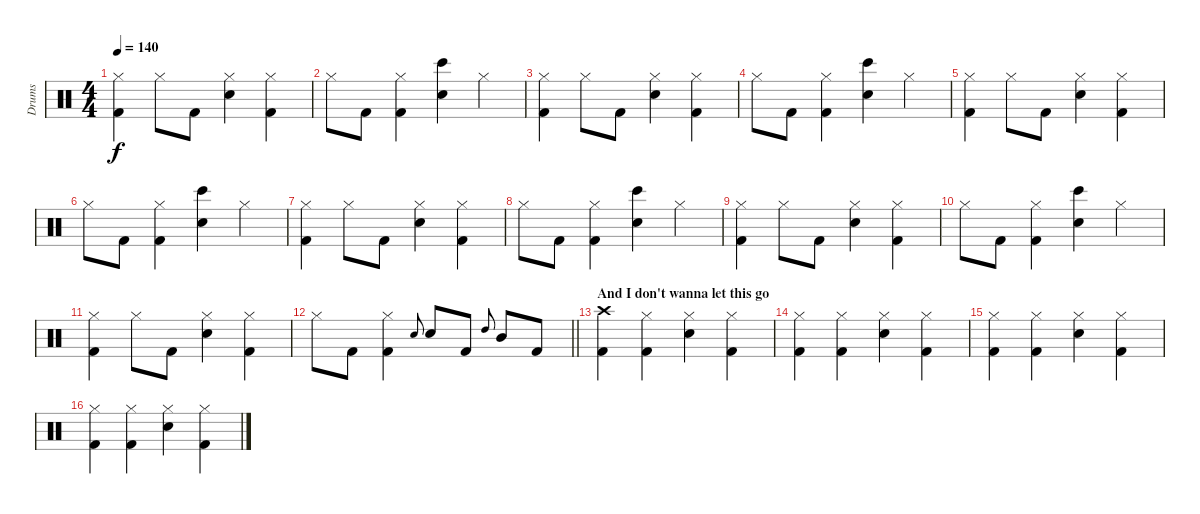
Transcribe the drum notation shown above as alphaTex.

\track ("Drums" "Drums") {instrument percussion}
\staff {score}
\articulation defaults
\ts (4 4)
\tempo 140
\clef neutral
\ks c
("Kick (hit) 2" "Hi-Hat (closed)").4{dy f} "Hi-Hat (closed)".8 "Kick (hit) 2".8 ("Hi-Hat (closed)" "Electric Snare (hit)").4 ("Kick (hit) 2" "Hi-Hat (closed)").4 |
"Hi-Hat (closed)".8 "Kick (hit) 2".8 ("Kick (hit) 2" "Hi-Hat (closed)").4 ("Bongo High (hit)" "Electric Snare (hit)").4 "Hi-Hat (closed)".4 |
("Kick (hit) 2" "Hi-Hat (closed)").4 "Hi-Hat (closed)".8 "Kick (hit) 2".8 ("Hi-Hat (closed)" "Electric Snare (hit)").4 ("Kick (hit) 2" "Hi-Hat (closed)").4 |
"Hi-Hat (closed)".8 "Kick (hit) 2".8 ("Kick (hit) 2" "Hi-Hat (closed)").4 ("Bongo High (hit)" "Electric Snare (hit)").4 "Hi-Hat (closed)".4 |
("Kick (hit) 2" "Hi-Hat (closed)").4 "Hi-Hat (closed)".8 "Kick (hit) 2".8 ("Hi-Hat (closed)" "Electric Snare (hit)").4 ("Kick (hit) 2" "Hi-Hat (closed)").4 |
"Hi-Hat (closed)".8 "Kick (hit) 2".8 ("Kick (hit) 2" "Hi-Hat (closed)").4 ("Bongo High (hit)" "Electric Snare (hit)").4 "Hi-Hat (closed)".4 |
("Kick (hit) 2" "Hi-Hat (closed)").4 "Hi-Hat (closed)".8 "Kick (hit) 2".8 ("Hi-Hat (closed)" "Electric Snare (hit)").4 ("Kick (hit) 2" "Hi-Hat (closed)").4 |
"Hi-Hat (closed)".8 "Kick (hit) 2".8 ("Kick (hit) 2" "Hi-Hat (closed)").4 ("Bongo High (hit)" "Electric Snare (hit)").4 "Hi-Hat (closed)".4 |
("Kick (hit) 2" "Hi-Hat (closed)").4 "Hi-Hat (closed)".8 "Kick (hit) 2".8 ("Hi-Hat (closed)" "Electric Snare (hit)").4 ("Kick (hit) 2" "Hi-Hat (closed)").4 |
"Hi-Hat (closed)".8 "Kick (hit) 2".8 ("Kick (hit) 2" "Hi-Hat (closed)").4 ("Bongo High (hit)" "Electric Snare (hit)").4 "Hi-Hat (closed)".4 |
("Kick (hit) 2" "Hi-Hat (closed)").4 "Hi-Hat (closed)".8 "Kick (hit) 2".8 ("Hi-Hat (closed)" "Electric Snare (hit)").4 ("Kick (hit) 2" "Hi-Hat (closed)").4 |
\barLineRight lightlight "Hi-Hat (closed)".8 "Kick (hit) 2".8
("Kick (hit) 2" "Hi-Hat (closed)").4 "Electric Snare (hit)".8{gr onbeat} "Electric Snare (hit)".8 "Kick (hit) 2".8 "High Tom (hit)".8{gr onbeat} "Mid Tom (hit)".8 "Kick (hit) 2".8 |
\section ("" "And I don't wanna let this go")
("Kick (hit) 2" "Crash high (hit)").4 ("Kick (hit) 2" "Hi-Hat (closed)").4 ("Electric Snare (hit)" "Hi-Hat (closed)").4 ("Kick (hit) 2" "Hi-Hat (closed)").4 |
("Kick (hit) 2" "Hi-Hat (closed)").4 ("Kick (hit) 2" "Hi-Hat (closed)").4 ("Electric Snare (hit)" "Hi-Hat (closed)").4 ("Hi-Hat (closed)" "Kick (hit) 2").4 |
("Kick (hit) 2" "Hi-Hat (closed)").4 ("Kick (hit) 2" "Hi-Hat (closed)").4 ("Electric Snare (hit)" "Hi-Hat (closed)").4 ("Hi-Hat (closed)" "Kick (hit) 2").4 |
("Kick (hit) 2" "Hi-Hat (closed)").4 ("Kick (hit) 2" "Hi-Hat (closed)").4 ("Electric Snare (hit)" "Hi-Hat (closed)").4 ("Hi-Hat (closed)" "Kick (hit) 2").4
